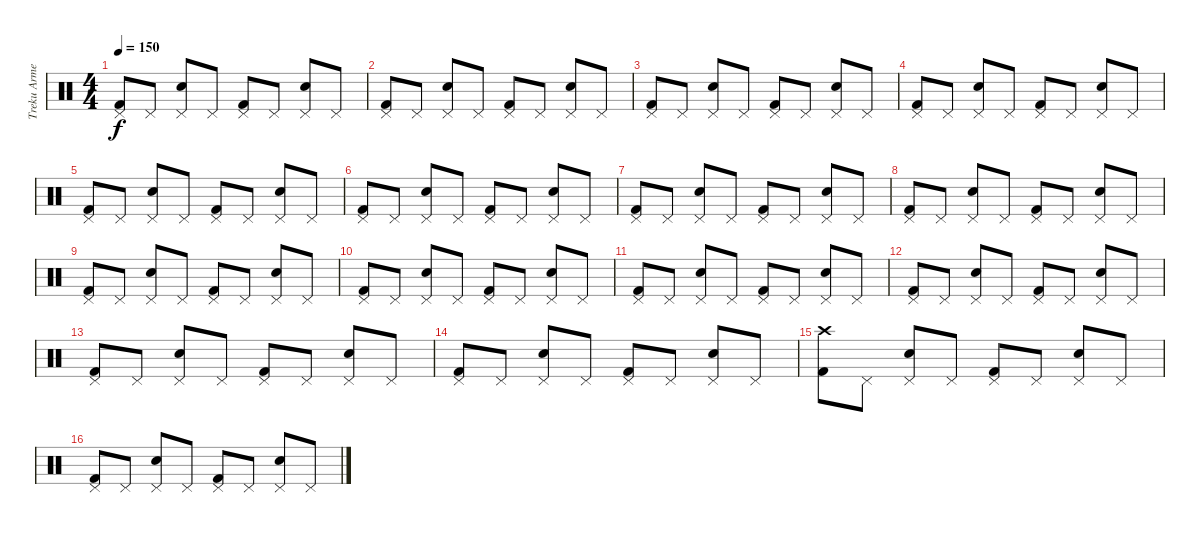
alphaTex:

\track ("Treku Armendáriz" "Treku Arme") {instrument percussion}
\staff {score}
\articulation defaults
\ts (4 4)
\tempo 150
\clef neutral
\ks c
("Pedal Hi-Hat (hit)" "Kick (hit) 2").8{dy f} "Pedal Hi-Hat (hit)".8 ("Pedal Hi-Hat (hit)" "Electric Snare (hit)").8 "Pedal Hi-Hat (hit)".8 ("Pedal Hi-Hat (hit)" "Kick (hit) 2").8 "Pedal Hi-Hat (hit)".8 ("Pedal Hi-Hat (hit)" "Electric Snare (hit)").8 "Pedal Hi-Hat (hit)".8 |
("Pedal Hi-Hat (hit)" "Kick (hit) 2").8 "Pedal Hi-Hat (hit)".8 ("Pedal Hi-Hat (hit)" "Electric Snare (hit)").8 "Pedal Hi-Hat (hit)".8 ("Pedal Hi-Hat (hit)" "Kick (hit) 2").8 "Pedal Hi-Hat (hit)".8 ("Pedal Hi-Hat (hit)" "Electric Snare (hit)").8 "Pedal Hi-Hat (hit)".8 |
("Pedal Hi-Hat (hit)" "Kick (hit) 2").8 "Pedal Hi-Hat (hit)".8 ("Pedal Hi-Hat (hit)" "Electric Snare (hit)").8 "Pedal Hi-Hat (hit)".8 ("Pedal Hi-Hat (hit)" "Kick (hit) 2").8 "Pedal Hi-Hat (hit)".8 ("Pedal Hi-Hat (hit)" "Electric Snare (hit)").8 "Pedal Hi-Hat (hit)".8 |
("Pedal Hi-Hat (hit)" "Kick (hit) 2").8 "Pedal Hi-Hat (hit)".8 ("Pedal Hi-Hat (hit)" "Electric Snare (hit)").8 "Pedal Hi-Hat (hit)".8 ("Pedal Hi-Hat (hit)" "Kick (hit) 2").8 "Pedal Hi-Hat (hit)".8 ("Pedal Hi-Hat (hit)" "Electric Snare (hit)").8 "Pedal Hi-Hat (hit)".8 |
("Pedal Hi-Hat (hit)" "Kick (hit) 2").8 "Pedal Hi-Hat (hit)".8 ("Pedal Hi-Hat (hit)" "Electric Snare (hit)").8 "Pedal Hi-Hat (hit)".8 ("Pedal Hi-Hat (hit)" "Kick (hit) 2").8 "Pedal Hi-Hat (hit)".8 ("Pedal Hi-Hat (hit)" "Electric Snare (hit)").8 "Pedal Hi-Hat (hit)".8 |
("Pedal Hi-Hat (hit)" "Kick (hit) 2").8 "Pedal Hi-Hat (hit)".8 ("Pedal Hi-Hat (hit)" "Electric Snare (hit)").8 "Pedal Hi-Hat (hit)".8 ("Pedal Hi-Hat (hit)" "Kick (hit) 2").8 "Pedal Hi-Hat (hit)".8 ("Pedal Hi-Hat (hit)" "Electric Snare (hit)").8 "Pedal Hi-Hat (hit)".8 |
("Pedal Hi-Hat (hit)" "Kick (hit) 2").8 "Pedal Hi-Hat (hit)".8 ("Pedal Hi-Hat (hit)" "Electric Snare (hit)").8 "Pedal Hi-Hat (hit)".8 ("Pedal Hi-Hat (hit)" "Kick (hit) 2").8 "Pedal Hi-Hat (hit)".8 ("Pedal Hi-Hat (hit)" "Electric Snare (hit)").8 "Pedal Hi-Hat (hit)".8 |
("Pedal Hi-Hat (hit)" "Kick (hit) 2").8 "Pedal Hi-Hat (hit)".8 ("Pedal Hi-Hat (hit)" "Electric Snare (hit)").8 "Pedal Hi-Hat (hit)".8 ("Pedal Hi-Hat (hit)" "Kick (hit) 2").8 "Pedal Hi-Hat (hit)".8 ("Pedal Hi-Hat (hit)" "Electric Snare (hit)").8 "Pedal Hi-Hat (hit)".8 |
("Pedal Hi-Hat (hit)" "Kick (hit) 2").8 "Pedal Hi-Hat (hit)".8 ("Pedal Hi-Hat (hit)" "Electric Snare (hit)").8 "Pedal Hi-Hat (hit)".8 ("Pedal Hi-Hat (hit)" "Kick (hit) 2").8 "Pedal Hi-Hat (hit)".8 ("Pedal Hi-Hat (hit)" "Electric Snare (hit)").8 "Pedal Hi-Hat (hit)".8 |
("Pedal Hi-Hat (hit)" "Kick (hit) 2").8 "Pedal Hi-Hat (hit)".8 ("Pedal Hi-Hat (hit)" "Electric Snare (hit)").8 "Pedal Hi-Hat (hit)".8 ("Pedal Hi-Hat (hit)" "Kick (hit) 2").8 "Pedal Hi-Hat (hit)".8 ("Pedal Hi-Hat (hit)" "Electric Snare (hit)").8 "Pedal Hi-Hat (hit)".8 |
("Pedal Hi-Hat (hit)" "Kick (hit) 2").8 "Pedal Hi-Hat (hit)".8 ("Pedal Hi-Hat (hit)" "Electric Snare (hit)").8 "Pedal Hi-Hat (hit)".8 ("Pedal Hi-Hat (hit)" "Kick (hit) 2").8 "Pedal Hi-Hat (hit)".8 ("Pedal Hi-Hat (hit)" "Electric Snare (hit)").8 "Pedal Hi-Hat (hit)".8 |
("Pedal Hi-Hat (hit)" "Kick (hit) 2").8 "Pedal Hi-Hat (hit)".8 ("Pedal Hi-Hat (hit)" "Electric Snare (hit)").8 "Pedal Hi-Hat (hit)".8 ("Pedal Hi-Hat (hit)" "Kick (hit) 2").8 "Pedal Hi-Hat (hit)".8 ("Pedal Hi-Hat (hit)" "Electric Snare (hit)").8 "Pedal Hi-Hat (hit)".8 |
("Pedal Hi-Hat (hit)" "Kick (hit) 2").8 "Pedal Hi-Hat (hit)".8 ("Pedal Hi-Hat (hit)" "Electric Snare (hit)").8 "Pedal Hi-Hat (hit)".8 ("Pedal Hi-Hat (hit)" "Kick (hit) 2").8 "Pedal Hi-Hat (hit)".8 ("Pedal Hi-Hat (hit)" "Electric Snare (hit)").8 "Pedal Hi-Hat (hit)".8 |
("Pedal Hi-Hat (hit)" "Kick (hit) 2").8 "Pedal Hi-Hat (hit)".8 ("Pedal Hi-Hat (hit)" "Electric Snare (hit)").8 "Pedal Hi-Hat (hit)".8 ("Pedal Hi-Hat (hit)" "Kick (hit) 2").8 "Pedal Hi-Hat (hit)".8 ("Pedal Hi-Hat (hit)" "Electric Snare (hit)").8 "Pedal Hi-Hat (hit)".8 |
("Crash high (hit)" "Kick (hit) 2").8 "Pedal Hi-Hat (hit)".8 ("Pedal Hi-Hat (hit)" "Electric Snare (hit)").8 "Pedal Hi-Hat (hit)".8 ("Pedal Hi-Hat (hit)" "Kick (hit) 2").8 "Pedal Hi-Hat (hit)".8 ("Pedal Hi-Hat (hit)" "Electric Snare (hit)").8 "Pedal Hi-Hat (hit)".8 |
("Pedal Hi-Hat (hit)" "Kick (hit) 2").8 "Pedal Hi-Hat (hit)".8 ("Pedal Hi-Hat (hit)" "Electric Snare (hit)").8 "Pedal Hi-Hat (hit)".8 ("Pedal Hi-Hat (hit)" "Kick (hit) 2").8 "Pedal Hi-Hat (hit)".8 ("Pedal Hi-Hat (hit)" "Electric Snare (hit)").8 "Pedal Hi-Hat (hit)".8
